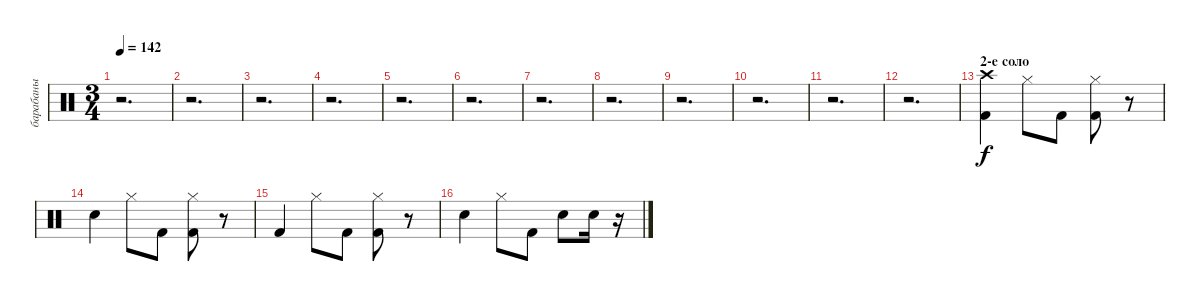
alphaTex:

\track ("барабаны" "барабаны") {instrument percussion}
\staff {score}
\articulation defaults
\ts (3 4)
\tempo 142
\clef neutral
\ks c
r.2{d dy f} |
r.2{d} |
r.2{d} |
r.2{d} |
r.2{d} |
r.2{d} |
r.2{d} |
r.2{d} |
r.2{d} |
r.2{d} |
r.2{d} |
r.2{d} |
\section ("" "2-е соло")
("Crash high (hit)" "Kick (hit) 2").4 "Hi-Hat (closed)".8 "Kick (hit) 2".8 ("Hi-Hat (closed)" "Kick (hit) 2").8 r.8 |
"Snare (hit) 2".4 "Hi-Hat (closed)".8 "Kick (hit) 2".8 ("Hi-Hat (closed)" "Kick (hit) 2").8 r.8 |
"Kick (hit) 2".4 "Hi-Hat (closed)".8 "Kick (hit) 2".8 ("Hi-Hat (closed)" "Kick (hit) 2").8 r.8 |
"Snare (hit) 2".4 "Hi-Hat (closed)".8 "Kick (hit) 2".8 "Snare (hit) 2".8 "Snare (hit) 2".16 r.16
